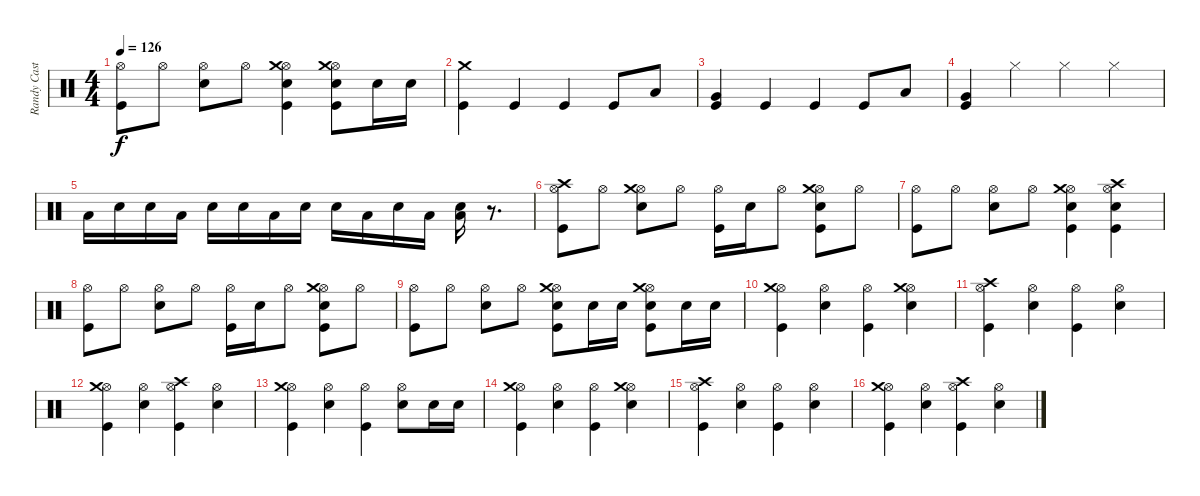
\track ("Randy Castillo" "Randy Cast") {instrument percussion}
\staff {score}
\articulation defaults
\ts (4 4)
\tempo 126
\clef neutral
\ks c
("Kick (hit)" "Hi-Hat (open)").8{dy f} "Hi-Hat (open)".8 ("Snare (hit) 2" "Hi-Hat (open)").8 "Hi-Hat (open)".8 ("Kick (hit)" "Snare (hit) 2" "Hi-Hat (open)" "Crash medium (hit)").4 ("Kick (hit)" "Snare (hit) 2" "Hi-Hat (open)" "Crash medium (hit)").8 "Snare (hit) 2".16 "Snare (hit) 2".16 |
("Kick (hit)" "Crash medium (hit)").4 "Kick (hit)".4 "Kick (hit)".4 "Kick (hit)".8 "Low Tom (hit)".8 |
("Kick (hit)" "Very Low Tom (hit)").4 "Kick (hit)".4 "Kick (hit)".4 "Kick (hit)".8 "Low Tom (hit)".8 |
("Kick (hit)" "Very Low Tom (hit)").4 "Hi-Hat (closed)".4{volume 12} "Hi-Hat (closed)".4 "Hi-Hat (closed)".4 |
"Low Tom (hit)".16{volume 16} "Snare (hit) 2".16 "Snare (hit) 2".16 "Low Tom (hit)".16 "Snare (hit) 2".16 "Snare (hit) 2".16 "Low Tom (hit)".16 "Snare (hit) 2".16 "Snare (hit) 2".16 "Low Tom (hit)".16 "Snare (hit) 2".16 "Low Tom (hit)".16 ("Snare (hit) 2" "Low Tom (hit)").16 r.8{d} |
("Kick (hit)" "Hi-Hat (open)" "Crash high (hit)").8 "Hi-Hat (open)".8 ("Snare (hit) 2" "Hi-Hat (open)" "Crash medium (hit)").8 "Hi-Hat (open)".8 ("Kick (hit)" "Hi-Hat (open)").16 "Snare (hit) 2".16 "Hi-Hat (open)".8 ("Kick (hit)" "Snare (hit) 2" "Hi-Hat (open)" "Crash medium (hit)").8 "Hi-Hat (open)".8 |
("Kick (hit)" "Hi-Hat (open)").8 "Hi-Hat (open)".8 ("Snare (hit) 2" "Hi-Hat (open)").8 "Hi-Hat (open)".8 ("Kick (hit)" "Snare (hit) 2" "Hi-Hat (open)" "Crash medium (hit)").4 ("Kick (hit)" "Snare (hit) 2" "Hi-Hat (open)" "Crash high (hit)").4 |
("Kick (hit)" "Hi-Hat (open)").8 "Hi-Hat (open)".8 ("Snare (hit) 2" "Hi-Hat (open)").8 "Hi-Hat (open)".8 ("Kick (hit)" "Hi-Hat (open)").16 "Snare (hit) 2".16 "Hi-Hat (open)".8 ("Kick (hit)" "Snare (hit) 2" "Hi-Hat (open)" "Crash medium (hit)").8 "Hi-Hat (open)".8 |
("Kick (hit)" "Hi-Hat (open)").8 "Hi-Hat (open)".8 ("Snare (hit) 2" "Hi-Hat (open)").8 "Hi-Hat (open)".8 ("Kick (hit)" "Snare (hit) 2" "Hi-Hat (open)" "Crash medium (hit)").8 "Snare (hit) 2".16 "Snare (hit) 2".16 ("Kick (hit)" "Snare (hit) 2" "Hi-Hat (open)" "Crash medium (hit)").8 "Snare (hit) 2".16 "Snare (hit) 2".16 |
("Kick (hit)" "Hi-Hat (open)" "Crash medium (hit)").4 ("Snare (hit) 2" "Hi-Hat (open)").4 ("Kick (hit)" "Hi-Hat (open)").4 ("Snare (hit) 2" "Hi-Hat (open)" "Crash medium (hit)").4 |
("Kick (hit)" "Hi-Hat (open)" "Crash high (hit)").4 ("Snare (hit) 2" "Hi-Hat (open)").4 ("Kick (hit)" "Hi-Hat (open)").4 ("Snare (hit) 2" "Hi-Hat (open)").4 |
("Kick (hit)" "Hi-Hat (open)" "Crash medium (hit)").4 ("Snare (hit) 2" "Hi-Hat (open)").4 ("Kick (hit)" "Hi-Hat (open)" "Crash high (hit)").4 ("Snare (hit) 2" "Hi-Hat (open)").4 |
("Kick (hit)" "Hi-Hat (open)" "Crash medium (hit)").4 ("Snare (hit) 2" "Hi-Hat (open)").4 ("Kick (hit)" "Hi-Hat (open)").4 ("Snare (hit) 2" "Hi-Hat (open)").8 "Snare (hit) 2".16 "Snare (hit) 2".16 |
("Kick (hit)" "Hi-Hat (open)" "Crash medium (hit)").4 ("Snare (hit) 2" "Hi-Hat (open)").4 ("Kick (hit)" "Hi-Hat (open)").4 ("Snare (hit) 2" "Hi-Hat (open)" "Crash medium (hit)").4 |
("Kick (hit)" "Hi-Hat (open)" "Crash high (hit)").4 ("Snare (hit) 2" "Hi-Hat (open)").4 ("Kick (hit)" "Hi-Hat (open)").4 ("Snare (hit) 2" "Hi-Hat (open)").4 |
("Kick (hit)" "Hi-Hat (open)" "Crash medium (hit)").4 ("Snare (hit) 2" "Hi-Hat (open)").4 ("Kick (hit)" "Hi-Hat (open)" "Crash high (hit)").4 ("Snare (hit) 2" "Hi-Hat (open)").4
